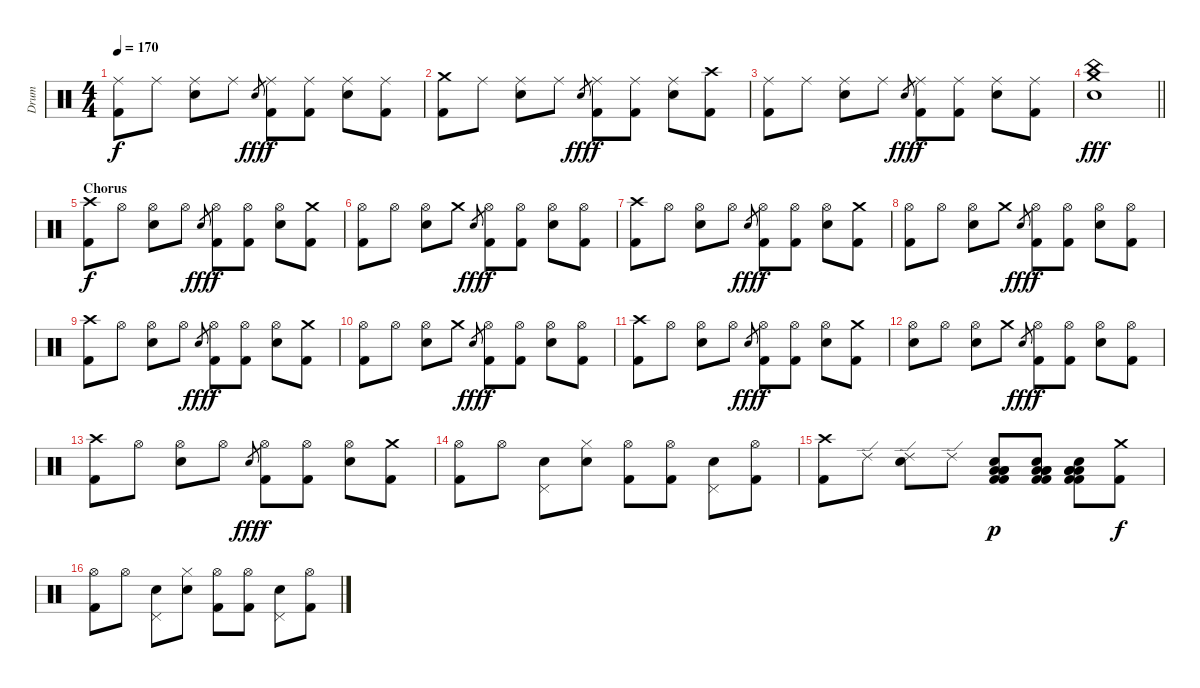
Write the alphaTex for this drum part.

\track ("Drum" "Drum") {instrument percussion}
\staff {score}
\articulation defaults
\ts (4 4)
\tempo 170
\clef neutral
\ks c
("Ride (middle)" "Kick (hit) 2").8{dy f} "Ride (middle)".8 ("Ride (middle)" "Electric Snare (hit)").8 "Ride (middle)".8 "Electric Snare (hit)".8{gr dy fff} ("Ride (middle)" "Kick (hit) 2").8{dy f} ("Ride (middle)" "Kick (hit) 2").8 ("Ride (middle)" "Electric Snare (hit)").8 ("Ride (middle)" "Kick (hit) 2").8 |
("Crash medium (hit)" "Kick (hit) 2").8 "Ride (middle)".8 ("Ride (middle)" "Electric Snare (hit)").8 "Ride (middle)".8 "Electric Snare (hit)".8{gr dy fff} ("Ride (middle)" "Kick (hit) 2").8{dy f} ("Ride (middle)" "Kick (hit) 2").8 ("Ride (middle)" "Electric Snare (hit)").8 ("Crash high (hit)" "Kick (hit) 2").8 |
("Ride (middle)" "Kick (hit) 2").8 "Ride (middle)".8 ("Ride (middle)" "Electric Snare (hit)").8 "Ride (middle)".8 "Electric Snare (hit)".8{gr dy fff} ("Ride (middle)" "Kick (hit) 2").8{dy f} ("Ride (middle)" "Kick (hit) 2").8 ("Ride (middle)" "Electric Snare (hit)").8 ("Ride (middle)" "Kick (hit) 2").8 |
\barLineRight lightlight
("Crash medium (hit)" "China (hit)" "Electric Snare (hit)").1{dy fff} |
\section ("" "Chorus")
("Crash high (hit)" "Kick (hit) 2").8{dy f} "Hi-Hat (open)".8 ("Hi-Hat (open)" "Electric Snare (hit)").8 "Hi-Hat (open)".8 "Electric Snare (hit)".8{gr dy fff} ("Hi-Hat (open)" "Kick (hit) 2").8{dy f} ("Hi-Hat (open)" "Kick (hit) 2").8 ("Hi-Hat (open)" "Electric Snare (hit)").8 ("Crash medium (hit)" "Kick (hit) 2").8 |
("Hi-Hat (open)" "Kick (hit) 2").8 "Hi-Hat (open)".8 ("Hi-Hat (open)" "Electric Snare (hit)").8 "Crash medium (hit)".8 "Electric Snare (hit)".8{gr dy fff} ("Hi-Hat (open)" "Kick (hit) 2").8{dy f} ("Hi-Hat (open)" "Kick (hit) 2").8 ("Hi-Hat (open)" "Electric Snare (hit)").8 ("Hi-Hat (open)" "Kick (hit) 2").8 |
("Crash high (hit)" "Kick (hit) 2").8 "Hi-Hat (open)".8 ("Hi-Hat (open)" "Electric Snare (hit)").8 "Hi-Hat (open)".8 "Electric Snare (hit)".8{gr dy fff} ("Hi-Hat (open)" "Kick (hit) 2").8{dy f} ("Hi-Hat (open)" "Kick (hit) 2").8 ("Hi-Hat (open)" "Electric Snare (hit)").8 ("Crash medium (hit)" "Kick (hit) 2").8 |
("Hi-Hat (open)" "Kick (hit) 2").8 "Hi-Hat (open)".8 ("Hi-Hat (open)" "Electric Snare (hit)").8 "Crash medium (hit)".8 "Electric Snare (hit)".8{gr dy fff} ("Hi-Hat (open)" "Kick (hit) 2").8{dy f} ("Hi-Hat (open)" "Kick (hit) 2").8 ("Hi-Hat (open)" "Electric Snare (hit)").8 ("Hi-Hat (open)" "Kick (hit) 2").8 |
("Crash high (hit)" "Kick (hit) 2").8 "Hi-Hat (open)".8 ("Hi-Hat (open)" "Electric Snare (hit)").8 "Hi-Hat (open)".8 "Electric Snare (hit)".8{gr dy fff} ("Hi-Hat (open)" "Kick (hit) 2").8{dy f} ("Hi-Hat (open)" "Kick (hit) 2").8 ("Hi-Hat (open)" "Electric Snare (hit)").8 ("Crash medium (hit)" "Kick (hit) 2").8 |
("Hi-Hat (open)" "Kick (hit) 2").8 "Hi-Hat (open)".8 ("Hi-Hat (open)" "Electric Snare (hit)").8 "Crash medium (hit)".8 "Electric Snare (hit)".8{gr dy fff} ("Hi-Hat (open)" "Kick (hit) 2").8{dy f} ("Hi-Hat (open)" "Kick (hit) 2").8 ("Hi-Hat (open)" "Electric Snare (hit)").8 ("Hi-Hat (open)" "Kick (hit) 2").8 |
("Crash high (hit)" "Kick (hit) 2").8 "Hi-Hat (open)".8 ("Hi-Hat (open)" "Electric Snare (hit)").8 "Hi-Hat (open)".8 "Electric Snare (hit)".8{gr dy fff} ("Hi-Hat (open)" "Kick (hit) 2").8{dy f} ("Hi-Hat (open)" "Kick (hit) 2").8 ("Hi-Hat (open)" "Electric Snare (hit)").8 ("Crash medium (hit)" "Kick (hit) 2").8 |
("Hi-Hat (open)" "Snare (hit)").8 "Hi-Hat (open)".8 ("Hi-Hat (open)" "Electric Snare (hit)").8 "Crash medium (hit)".8 "Electric Snare (hit)".8{gr dy fff} ("Hi-Hat (open)" "Kick (hit) 2").8{dy f} ("Hi-Hat (open)" "Kick (hit) 2").8 ("Hi-Hat (open)" "Electric Snare (hit)").8 ("Hi-Hat (open)" "Kick (hit) 2").8 |
("Crash high (hit)" "Kick (hit) 2").8 "Hi-Hat (open)".8 ("Hi-Hat (open)" "Electric Snare (hit)").8 "Hi-Hat (open)".8 "Electric Snare (hit)".8{gr dy fff} ("Hi-Hat (open)" "Kick (hit) 2").8{dy f} ("Hi-Hat (open)" "Kick (hit) 2").8 ("Hi-Hat (open)" "Electric Snare (hit)").8 ("Crash medium (hit)" "Kick (hit) 2").8 |
("Hi-Hat (open)" "Kick (hit) 2").8 "Hi-Hat (open)".8 ("Pedal Hi-Hat (hit)" "Electric Snare (hit)").8 ("Hi-Hat (closed)" "Electric Snare (hit)").8 ("Hi-Hat (open)" "Kick (hit) 2").8 ("Hi-Hat (open)" "Kick (hit) 2").8 ("Pedal Hi-Hat (hit)" "Electric Snare (hit)").8 ("Hi-Hat (open)" "Kick (hit) 2").8 |
("Crash high (hit)" "Kick (hit) 2").8 "Ride (edge) 2".8 ("Ride (edge) 2" "Electric Snare (hit)").8 "Ride (edge) 2".8 ("Low Tom (hit)" "Low Floor Tom (hit)" "Low Floor Tom (hit)" "Kick (hit) 2" "Snare (hit) 2" "Kick (hit) 2").8{dy p} ("Low Tom (hit)" "Low Floor Tom (hit)" "Low Floor Tom (hit)" "Kick (hit) 2" "Snare (hit) 2" "Kick (hit) 2").8 ("Low Tom (hit)" "Low Floor Tom (hit)" "Low Floor Tom (hit)" "Kick (hit) 2" "Snare (hit) 2" "Kick (hit) 2").8 ("Crash medium (hit)" "Kick (hit) 2").8{dy f} |
("Hi-Hat (open)" "Kick (hit) 2").8 "Hi-Hat (open)".8 ("Pedal Hi-Hat (hit)" "Electric Snare (hit)").8 ("Hi-Hat (closed)" "Electric Snare (hit)").8 ("Hi-Hat (open)" "Kick (hit) 2").8 ("Hi-Hat (open)" "Kick (hit) 2").8 ("Pedal Hi-Hat (hit)" "Electric Snare (hit)").8 ("Hi-Hat (open)" "Kick (hit) 2").8
